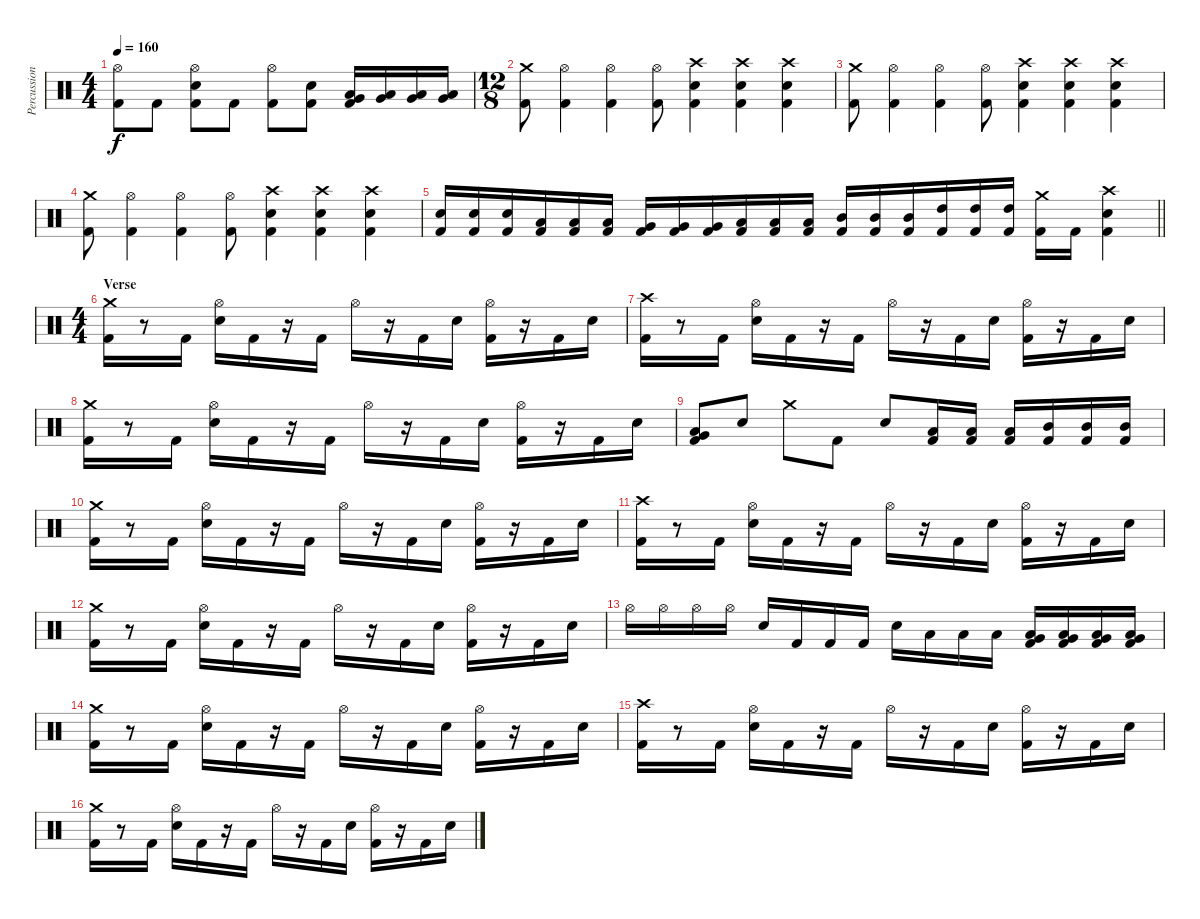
\track ("Percussion" "Percussion") {instrument percussion}
\staff {score}
\articulation defaults
\ts (4 4)
\tempo 160
\clef neutral
\ks c
("Hi-Hat (open)" "Kick (hit) 2").8{dy f} "Kick (hit) 2".8 ("Hi-Hat (open)" "Electric Snare (hit)" "Kick (hit) 2").8 "Kick (hit) 2".8 ("Hi-Hat (open)" "Kick (hit) 2").8 ("Electric Snare (hit)" "Kick (hit) 2").8 ("Low Tom (hit)" "Very Low Tom (hit)" "Kick (hit) 2").16 ("Low Tom (hit)" "Very Low Tom (hit)").16 ("Low Tom (hit)" "Very Low Tom (hit)").16 ("Low Tom (hit)" "Very Low Tom (hit)").16 |
\ts (12 8)
("Crash medium (hit)" "Kick (hit) 2").8 ("Hi-Hat (open)" "Kick (hit) 2").4 ("Hi-Hat (open)" "Kick (hit) 2").4 ("Hi-Hat (open)" "Kick (hit) 2").8 ("Crash high (hit)" "Electric Snare (hit)" "Kick (hit) 2").4 ("Crash high (hit)" "Electric Snare (hit)" "Kick (hit) 2").4 ("Crash high (hit)" "Electric Snare (hit)" "Kick (hit) 2").4 |
("Crash medium (hit)" "Kick (hit) 2").8 ("Hi-Hat (open)" "Kick (hit) 2").4 ("Hi-Hat (open)" "Kick (hit) 2").4 ("Hi-Hat (open)" "Kick (hit) 2").8 ("Crash high (hit)" "Electric Snare (hit)" "Kick (hit) 2").4 ("Crash high (hit)" "Electric Snare (hit)" "Kick (hit) 2").4 ("Crash high (hit)" "Electric Snare (hit)" "Kick (hit) 2").4 |
("Crash medium (hit)" "Kick (hit) 2").8 ("Hi-Hat (open)" "Kick (hit) 2").4 ("Hi-Hat (open)" "Kick (hit) 2").4 ("Hi-Hat (open)" "Kick (hit) 2").8 ("Crash high (hit)" "Electric Snare (hit)" "Kick (hit) 2").4 ("Crash high (hit)" "Electric Snare (hit)" "Kick (hit) 2").4 ("Crash high (hit)" "Electric Snare (hit)" "Kick (hit) 2").4 |
\barLineRight lightlight
("Electric Snare (hit)" "Kick (hit) 2").16 ("Electric Snare (hit)" "Kick (hit) 2").16 ("Electric Snare (hit)" "Kick (hit) 2").16 ("Low Floor Tom (hit)" "Kick (hit) 2").16 ("Low Floor Tom (hit)" "Kick (hit) 2").16 ("Low Floor Tom (hit)" "Kick (hit) 2").16 ("Very Low Tom (hit)" "Kick (hit) 2").16 ("Very Low Tom (hit)" "Kick (hit) 2").16 ("Very Low Tom (hit)" "Kick (hit) 2").16 ("Low Tom (hit)" "Kick (hit) 2").16 ("Low Tom (hit)" "Kick (hit) 2").16 ("Low Tom (hit)" "Kick (hit) 2").16 ("Mid Tom (hit)" "Kick (hit) 2").16 ("Mid Tom (hit)" "Kick (hit) 2").16 ("Mid Tom (hit)" "Kick (hit) 2").16 ("High Tom (hit)" "Kick (hit) 2").16 ("High Tom (hit)" "Kick (hit) 2").16 ("High Tom (hit)" "Kick (hit) 2").16 ("Crash medium (hit)" "Kick (hit) 2").16 "Kick (hit) 2".16 ("Crash high (hit)" "Electric Snare (hit)" "Kick (hit) 2").4 |
\ts (4 4)
\section ("" "Verse")
("Crash medium (hit)" "Kick (hit) 2").16 r.8 "Kick (hit) 2".16 ("Hi-Hat (open)" "Electric Snare (hit)").16 "Kick (hit) 2".16 r.16 "Kick (hit) 2".16 "Hi-Hat (open)".16 r.16 "Kick (hit) 2".16 "Electric Snare (hit)".16 ("Hi-Hat (open)" "Kick (hit) 2").16 r.16 "Kick (hit) 2".16 "Electric Snare (hit)".16 |
("Crash high (hit)" "Kick (hit) 2").16 r.8 "Kick (hit) 2".16 ("Hi-Hat (open)" "Electric Snare (hit)").16 "Kick (hit) 2".16 r.16 "Kick (hit) 2".16 "Hi-Hat (open)".16 r.16 "Kick (hit) 2".16 "Electric Snare (hit)".16 ("Hi-Hat (open)" "Kick (hit) 2").16 r.16 "Kick (hit) 2".16 "Electric Snare (hit)".16 |
("Crash medium (hit)" "Kick (hit) 2").16 r.8 "Kick (hit) 2".16 ("Hi-Hat (open)" "Electric Snare (hit)").16 "Kick (hit) 2".16 r.16 "Kick (hit) 2".16 "Hi-Hat (open)".16 r.16 "Kick (hit) 2".16 "Electric Snare (hit)".16 ("Hi-Hat (open)" "Kick (hit) 2").16 r.16 "Kick (hit) 2".16 "Electric Snare (hit)".16 |
("Low Tom (hit)" "Very Low Tom (hit)" "Kick (hit) 2").8 "Electric Snare (hit)".8 "Crash medium (hit)".8 "Kick (hit) 2".8 "Electric Snare (hit)".8 ("Low Tom (hit)" "Kick (hit) 2").16 ("Low Tom (hit)" "Kick (hit) 2").16 ("Low Tom (hit)" "Kick (hit) 2").16 ("Mid Tom (hit)" "Kick (hit) 2").16 ("Mid Tom (hit)" "Kick (hit) 2").16 ("Mid Tom (hit)" "Kick (hit) 2").16 |
("Crash medium (hit)" "Kick (hit) 2").16 r.8 "Kick (hit) 2".16 ("Hi-Hat (open)" "Electric Snare (hit)").16 "Kick (hit) 2".16 r.16 "Kick (hit) 2".16 "Hi-Hat (open)".16 r.16 "Kick (hit) 2".16 "Electric Snare (hit)".16 ("Hi-Hat (open)" "Kick (hit) 2").16 r.16 "Kick (hit) 2".16 "Electric Snare (hit)".16 |
("Crash high (hit)" "Kick (hit) 2").16 r.8 "Kick (hit) 2".16 ("Hi-Hat (open)" "Electric Snare (hit)").16 "Kick (hit) 2".16 r.16 "Kick (hit) 2".16 "Hi-Hat (open)".16 r.16 "Kick (hit) 2".16 "Electric Snare (hit)".16 ("Hi-Hat (open)" "Kick (hit) 2").16 r.16 "Kick (hit) 2".16 "Electric Snare (hit)".16 |
("Crash medium (hit)" "Kick (hit) 2").16 r.8 "Kick (hit) 2".16 ("Hi-Hat (open)" "Electric Snare (hit)").16 "Kick (hit) 2".16 r.16 "Kick (hit) 2".16 "Hi-Hat (open)".16 r.16 "Kick (hit) 2".16 "Electric Snare (hit)".16 ("Hi-Hat (open)" "Kick (hit) 2").16 r.16 "Kick (hit) 2".16 "Electric Snare (hit)".16 |
"Hi-Hat (open)".16 "Hi-Hat (open)".16 "Hi-Hat (open)".16 "Hi-Hat (open)".16 "Electric Snare (hit)".16 "Kick (hit) 2".16 "Kick (hit) 2".16 "Kick (hit) 2".16 "Electric Snare (hit)".16 "Low Tom (hit)".16 "Low Tom (hit)".16 "Low Tom (hit)".16 ("Low Floor Tom (hit)" "Very Low Tom (hit)" "Kick (hit) 2").16 ("Low Floor Tom (hit)" "Very Low Tom (hit)" "Kick (hit) 2").16 ("Low Floor Tom (hit)" "Very Low Tom (hit)" "Kick (hit) 2").16 ("Low Floor Tom (hit)" "Very Low Tom (hit)" "Kick (hit) 2").16 |
("Crash medium (hit)" "Kick (hit) 2").16 r.8 "Kick (hit) 2".16 ("Hi-Hat (open)" "Electric Snare (hit)").16 "Kick (hit) 2".16 r.16 "Kick (hit) 2".16 "Hi-Hat (open)".16 r.16 "Kick (hit) 2".16 "Electric Snare (hit)".16 ("Hi-Hat (open)" "Kick (hit) 2").16 r.16 "Kick (hit) 2".16 "Electric Snare (hit)".16 |
("Crash high (hit)" "Kick (hit) 2").16 r.8 "Kick (hit) 2".16 ("Hi-Hat (open)" "Electric Snare (hit)").16 "Kick (hit) 2".16 r.16 "Kick (hit) 2".16 "Hi-Hat (open)".16 r.16 "Kick (hit) 2".16 "Electric Snare (hit)".16 ("Hi-Hat (open)" "Kick (hit) 2").16 r.16 "Kick (hit) 2".16 "Electric Snare (hit)".16 |
("Crash medium (hit)" "Kick (hit) 2").16 r.8 "Kick (hit) 2".16 ("Hi-Hat (open)" "Electric Snare (hit)").16 "Kick (hit) 2".16 r.16 "Kick (hit) 2".16 "Hi-Hat (open)".16 r.16 "Kick (hit) 2".16 "Electric Snare (hit)".16 ("Hi-Hat (open)" "Kick (hit) 2").16 r.16 "Kick (hit) 2".16 "Electric Snare (hit)".16
